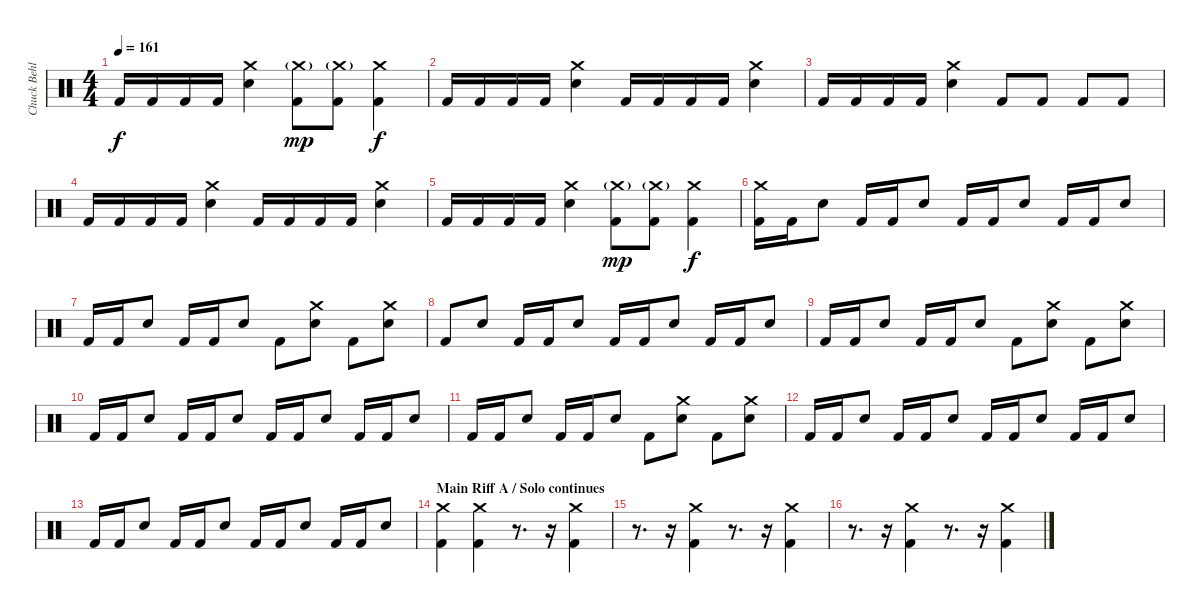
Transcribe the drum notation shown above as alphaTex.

\track ("Chuck Behler" "Chuck Behl") {instrument percussion}
\staff {score}
\articulation defaults
\ts (4 4)
\tempo 161
\clef neutral
\ks c "Kick (hit) 2".16{dy f} "Kick (hit) 2".16 "Kick (hit) 2".16 "Kick (hit) 2".16
("Crash medium (hit)" "Snare (hit) 2").4 ("Crash medium (hit)"{g} "Kick (hit) 2").8{dy mp} ("Crash medium (hit)"{g} "Kick (hit) 2").8 ("Crash medium (hit)" "Kick (hit) 2").4{dy f} |
"Kick (hit) 2".16 "Kick (hit) 2".16 "Kick (hit) 2".16 "Kick (hit) 2".16 ("Crash medium (hit)" "Snare (hit) 2").4 "Kick (hit) 2".16 "Kick (hit) 2".16 "Kick (hit) 2".16 "Kick (hit) 2".16 ("Crash medium (hit)" "Snare (hit) 2").4 |
"Kick (hit) 2".16 "Kick (hit) 2".16 "Kick (hit) 2".16 "Kick (hit) 2".16 ("Crash medium (hit)" "Snare (hit) 2").4 "Kick (hit) 2".8 "Kick (hit) 2".8 "Kick (hit) 2".8 "Kick (hit) 2".8 |
"Kick (hit) 2".16 "Kick (hit) 2".16 "Kick (hit) 2".16 "Kick (hit) 2".16 ("Crash medium (hit)" "Snare (hit) 2").4 "Kick (hit) 2".16 "Kick (hit) 2".16 "Kick (hit) 2".16 "Kick (hit) 2".16 ("Crash medium (hit)" "Snare (hit) 2").4 |
"Kick (hit) 2".16 "Kick (hit) 2".16 "Kick (hit) 2".16 "Kick (hit) 2".16 ("Crash medium (hit)" "Snare (hit) 2").4 ("Crash medium (hit)"{g} "Kick (hit) 2").8{dy mp} ("Crash medium (hit)"{g} "Kick (hit) 2").8 ("Crash medium (hit)" "Kick (hit) 2").4{dy f} |
("Crash medium (hit)" "Kick (hit) 2").16 "Kick (hit) 2".16 "Snare (hit) 2".8 "Kick (hit) 2".16 "Kick (hit) 2".16 "Snare (hit) 2".8 "Kick (hit) 2".16 "Kick (hit) 2".16 "Snare (hit) 2".8 "Kick (hit) 2".16 "Kick (hit) 2".16 "Snare (hit) 2".8 |
"Kick (hit) 2".16 "Kick (hit) 2".16 "Snare (hit) 2".8 "Kick (hit) 2".16 "Kick (hit) 2".16 "Snare (hit) 2".8 "Kick (hit) 2".8 ("Crash medium (hit)" "Snare (hit) 2").8 "Kick (hit) 2".8 ("Crash medium (hit)" "Snare (hit) 2").8 |
"Kick (hit) 2".8 "Snare (hit) 2".8 "Kick (hit) 2".16 "Kick (hit) 2".16 "Snare (hit) 2".8 "Kick (hit) 2".16 "Kick (hit) 2".16 "Snare (hit) 2".8 "Kick (hit) 2".16 "Kick (hit) 2".16 "Snare (hit) 2".8 |
"Kick (hit) 2".16 "Kick (hit) 2".16 "Snare (hit) 2".8 "Kick (hit) 2".16 "Kick (hit) 2".16 "Snare (hit) 2".8 "Kick (hit) 2".8 ("Crash medium (hit)" "Snare (hit) 2").8 "Kick (hit) 2".8 ("Crash medium (hit)" "Snare (hit) 2").8 |
"Kick (hit) 2".16 "Kick (hit) 2".16 "Snare (hit) 2".8 "Kick (hit) 2".16 "Kick (hit) 2".16 "Snare (hit) 2".8 "Kick (hit) 2".16 "Kick (hit) 2".16 "Snare (hit) 2".8 "Kick (hit) 2".16 "Kick (hit) 2".16 "Snare (hit) 2".8 |
"Kick (hit) 2".16 "Kick (hit) 2".16 "Snare (hit) 2".8 "Kick (hit) 2".16 "Kick (hit) 2".16 "Snare (hit) 2".8 "Kick (hit) 2".8 ("Crash medium (hit)" "Snare (hit) 2").8 "Kick (hit) 2".8 ("Crash medium (hit)" "Snare (hit) 2").8 |
"Kick (hit) 2".16 "Kick (hit) 2".16 "Snare (hit) 2".8 "Kick (hit) 2".16 "Kick (hit) 2".16 "Snare (hit) 2".8 "Kick (hit) 2".16 "Kick (hit) 2".16 "Snare (hit) 2".8 "Kick (hit) 2".16 "Kick (hit) 2".16 "Snare (hit) 2".8 |
"Kick (hit) 2".16 "Kick (hit) 2".16 "Snare (hit) 2".8 "Kick (hit) 2".16 "Kick (hit) 2".16 "Snare (hit) 2".8 "Kick (hit) 2".16 "Kick (hit) 2".16 "Snare (hit) 2".8 "Kick (hit) 2".16 "Kick (hit) 2".16 "Snare (hit) 2".8 |
\section ("" "Main Riff A / Solo continues")
("Crash medium (hit)" "Kick (hit) 2").4 ("Crash medium (hit)" "Kick (hit) 2").4{volume 0} r.8{d} r.16{volume 16} ("Crash medium (hit)" "Kick (hit) 2").4{volume 0} |
r.8{d} r.16{volume 16} ("Crash medium (hit)" "Kick (hit) 2").4{volume 0} r.8{d} r.16{volume 16} ("Crash medium (hit)" "Kick (hit) 2").4{volume 0} |
r.8{d} r.16{volume 16} ("Crash medium (hit)" "Kick (hit) 2").4{volume 0} r.8{d} r.16{volume 16} ("Crash medium (hit)" "Kick (hit) 2").4{volume 0}
